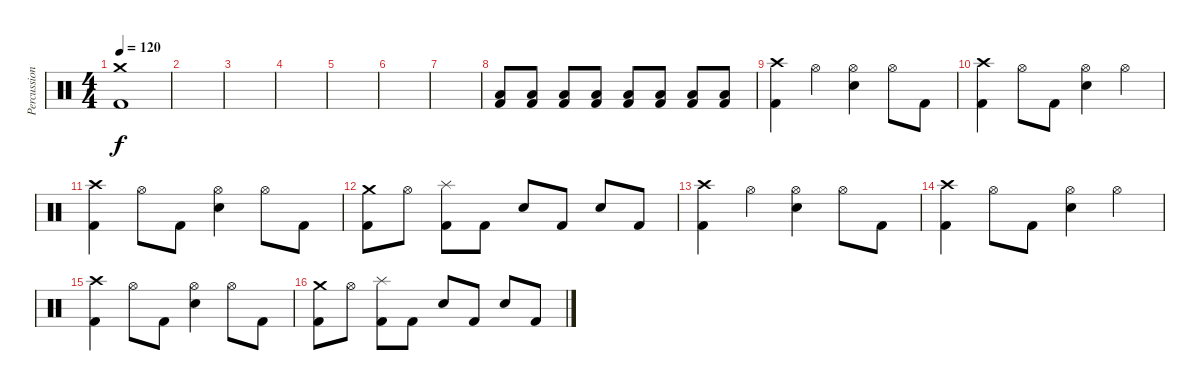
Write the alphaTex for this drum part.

\track ("Percussions" "Percussion") {instrument percussion}
\staff {score}
\articulation defaults
\ts (4 4)
\tempo 120
\clef neutral
\ks c
("Crash medium (hit)" "Kick (hit) 2").1{dy f} |
|
|
|
|
|
|
("Low Tom (hit)" "Kick (hit) 2").8 ("Low Tom (hit)" "Kick (hit) 2").8 ("Low Tom (hit)" "Kick (hit) 2").8 ("Low Tom (hit)" "Kick (hit) 2").8 ("Low Tom (hit)" "Kick (hit) 2").8 ("Low Tom (hit)" "Kick (hit) 2").8 ("Low Tom (hit)" "Kick (hit) 2").8 ("Low Tom (hit)" "Kick (hit) 2").8 |
("Crash high (hit)" "Kick (hit) 2").4 "Hi-Hat (open)".4 ("Hi-Hat (open)" "Electric Snare (hit)").4 "Hi-Hat (open)".8 "Kick (hit) 2".8 |
("Crash high (hit)" "Kick (hit) 2").4 "Hi-Hat (open)".8 "Kick (hit) 2".8 ("Hi-Hat (open)" "Electric Snare (hit)").4 "Hi-Hat (open)".4 |
("Crash high (hit)" "Kick (hit) 2").4 "Hi-Hat (open)".8 "Kick (hit) 2".8 ("Hi-Hat (open)" "Electric Snare (hit)").4 "Hi-Hat (open)".8 "Kick (hit) 2".8 |
("Crash medium (hit)" "Kick (hit) 2").8 "Hi-Hat (open)".8 ("Splash (hit)" "Kick (hit) 2").8 "Kick (hit) 2".8 "Electric Snare (hit)".8 "Kick (hit) 2".8 "Electric Snare (hit)".8 "Kick (hit) 2".8 |
("Crash high (hit)" "Kick (hit) 2").4 "Hi-Hat (open)".4 ("Hi-Hat (open)" "Electric Snare (hit)").4 "Hi-Hat (open)".8 "Kick (hit) 2".8 |
("Crash high (hit)" "Kick (hit) 2").4 "Hi-Hat (open)".8 "Kick (hit) 2".8 ("Hi-Hat (open)" "Electric Snare (hit)").4 "Hi-Hat (open)".4 |
("Crash high (hit)" "Kick (hit) 2").4 "Hi-Hat (open)".8 "Kick (hit) 2".8 ("Hi-Hat (open)" "Electric Snare (hit)").4 "Hi-Hat (open)".8 "Kick (hit) 2".8 |
("Crash medium (hit)" "Kick (hit) 2").8 "Hi-Hat (open)".8 ("Splash (hit)" "Kick (hit) 2").8 "Kick (hit) 2".8 "Electric Snare (hit)".8 "Kick (hit) 2".8 "Electric Snare (hit)".8 "Kick (hit) 2".8
